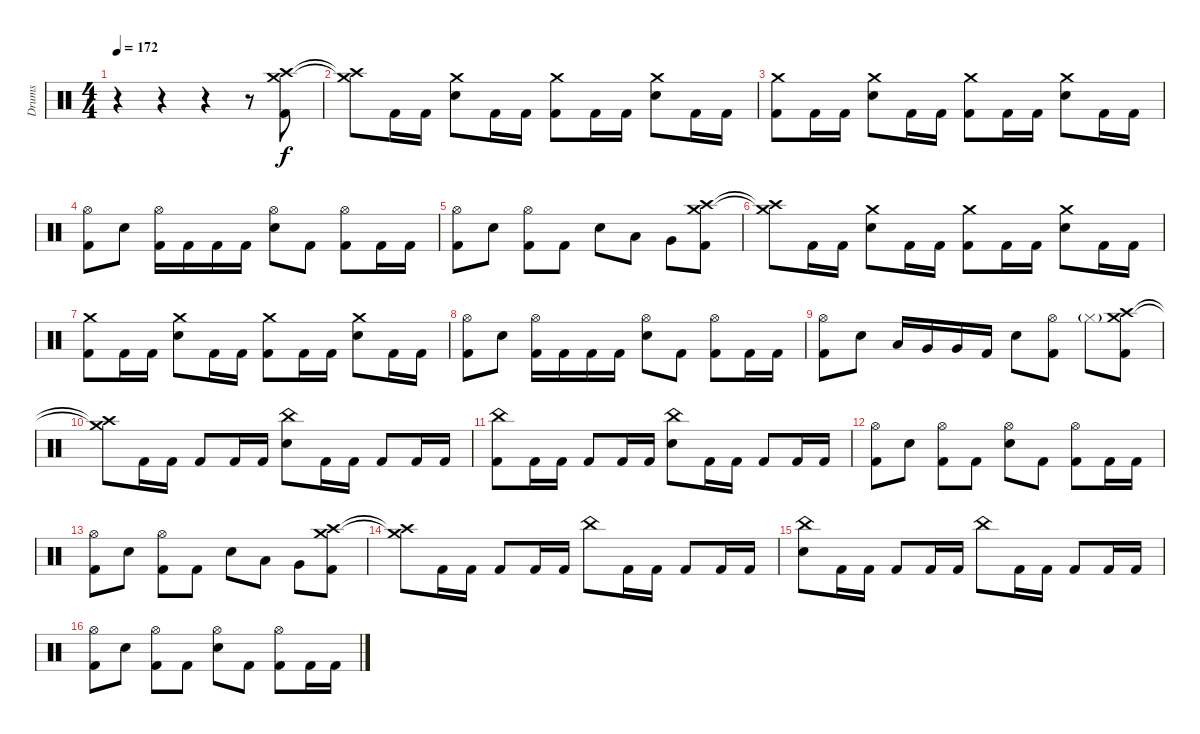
\track ("Drums" "Drums") {instrument percussion}
\staff {score}
\articulation defaults
\ts (4 4)
\tempo 172
\clef neutral
\ks c
r.4{dy f} r.4 r.4 r.8 ("Crash medium (hit)" "Crash high (hit)" "Kick (hit) 2").8 |
("Crash medium (hit)"{t} "Crash high (hit)"{t}).8 "Kick (hit) 2".16 "Kick (hit) 2".16 ("Crash medium (hit)" "Electric Snare (hit)").8 "Kick (hit) 2".16 "Kick (hit) 2".16 ("Crash medium (hit)" "Kick (hit) 2").8 "Kick (hit) 2".16 "Kick (hit) 2".16 ("Crash medium (hit)" "Electric Snare (hit)").8 "Kick (hit) 2".16 "Kick (hit) 2".16 |
("Crash medium (hit)" "Kick (hit) 2").8 "Kick (hit) 2".16 "Kick (hit) 2".16 ("Crash medium (hit)" "Electric Snare (hit)").8 "Kick (hit) 2".16 "Kick (hit) 2".16 ("Crash medium (hit)" "Kick (hit) 2").8 "Kick (hit) 2".16 "Kick (hit) 2".16 ("Crash medium (hit)" "Electric Snare (hit)").8 "Kick (hit) 2".16 "Kick (hit) 2".16 |
("Hi-Hat (open)" "Kick (hit) 2").8 "Electric Snare (hit)".8 ("Hi-Hat (open)" "Kick (hit) 2").16 "Kick (hit) 2".16 "Kick (hit) 2".16 "Kick (hit) 2".16 ("Hi-Hat (open)" "Electric Snare (hit)").8 "Kick (hit) 2".8 ("Hi-Hat (open)" "Kick (hit) 2").8 "Kick (hit) 2".16 "Kick (hit) 2".16 |
("Hi-Hat (open)" "Kick (hit) 2").8 "Electric Snare (hit)".8 ("Hi-Hat (open)" "Kick (hit) 2").8 "Kick (hit) 2".8 "Electric Snare (hit)".8 "Low Tom (hit)".8 "Very Low Tom (hit)".8 ("Crash medium (hit)" "Crash high (hit)" "Kick (hit) 2").8 |
("Crash medium (hit)"{t} "Crash high (hit)"{t}).8 "Kick (hit) 2".16 "Kick (hit) 2".16 ("Crash medium (hit)" "Electric Snare (hit)").8 "Kick (hit) 2".16 "Kick (hit) 2".16 ("Crash medium (hit)" "Kick (hit) 2").8 "Kick (hit) 2".16 "Kick (hit) 2".16 ("Crash medium (hit)" "Electric Snare (hit)").8 "Kick (hit) 2".16 "Kick (hit) 2".16 |
("Crash medium (hit)" "Kick (hit) 2").8 "Kick (hit) 2".16 "Kick (hit) 2".16 ("Crash medium (hit)" "Electric Snare (hit)").8 "Kick (hit) 2".16 "Kick (hit) 2".16 ("Crash medium (hit)" "Kick (hit) 2").8 "Kick (hit) 2".16 "Kick (hit) 2".16 ("Crash medium (hit)" "Electric Snare (hit)").8 "Kick (hit) 2".16 "Kick (hit) 2".16 |
("Hi-Hat (open)" "Kick (hit) 2").8 "Electric Snare (hit)".8 ("Hi-Hat (open)" "Kick (hit) 2").16 "Kick (hit) 2".16 "Kick (hit) 2".16 "Kick (hit) 2".16 ("Hi-Hat (open)" "Electric Snare (hit)").8 "Kick (hit) 2".8 ("Hi-Hat (open)" "Kick (hit) 2").8 "Kick (hit) 2".16 "Kick (hit) 2".16 |
("Hi-Hat (open)" "Kick (hit) 2").8 "Electric Snare (hit)".8 "Low Tom (hit)".16 "Very Low Tom (hit)".16 "Very Low Tom (hit)".16 "Kick (hit) 2".16 "Electric Snare (hit)".8 ("Hi-Hat (open)" "Kick (hit) 2").8 "Hi-Hat (closed)"{g}.8 ("Crash medium (hit)" "Crash high (hit)" "Kick (hit) 2").8 |
("Crash medium (hit)"{t} "Crash high (hit)"{t}).8 "Kick (hit) 2".16 "Kick (hit) 2".16 "Kick (hit) 2".8 "Kick (hit) 2".16 "Kick (hit) 2".16 ("China (hit)" "Electric Snare (hit)").8 "Kick (hit) 2".16 "Kick (hit) 2".16 "Kick (hit) 2".8 "Kick (hit) 2".16 "Kick (hit) 2".16 |
("China (hit)" "Kick (hit) 2").8 "Kick (hit) 2".16 "Kick (hit) 2".16 "Kick (hit) 2".8 "Kick (hit) 2".16 "Kick (hit) 2".16 ("China (hit)" "Electric Snare (hit)").8 "Kick (hit) 2".16 "Kick (hit) 2".16 "Kick (hit) 2".8 "Kick (hit) 2".16 "Kick (hit) 2".16 |
("Hi-Hat (open)" "Kick (hit) 2").8 "Electric Snare (hit)".8 ("Hi-Hat (open)" "Kick (hit) 2").8 "Kick (hit) 2".8 ("Hi-Hat (open)" "Electric Snare (hit)").8 "Kick (hit) 2".8 ("Hi-Hat (open)" "Kick (hit) 2").8 "Kick (hit) 2".16 "Kick (hit) 2".16 |
("Hi-Hat (open)" "Kick (hit) 2").8 "Electric Snare (hit)".8 ("Hi-Hat (open)" "Kick (hit) 2").8 "Kick (hit) 2".8 "Electric Snare (hit)".8 "Low Tom (hit)".8 "Very Low Tom (hit)".8 ("Crash medium (hit)" "Crash high (hit)" "Kick (hit) 2").8 |
("Crash medium (hit)"{t} "Crash high (hit)"{t}).8 "Kick (hit) 2".16 "Kick (hit) 2".16 "Kick (hit) 2".8 "Kick (hit) 2".16 "Kick (hit) 2".16 "China (hit)".8 "Kick (hit) 2".16 "Kick (hit) 2".16 "Kick (hit) 2".8 "Kick (hit) 2".16 "Kick (hit) 2".16 |
("China (hit)" "Electric Snare (hit)").8 "Kick (hit) 2".16 "Kick (hit) 2".16 "Kick (hit) 2".8 "Kick (hit) 2".16 "Kick (hit) 2".16 "China (hit)".8 "Kick (hit) 2".16 "Kick (hit) 2".16 "Kick (hit) 2".8 "Kick (hit) 2".16 "Kick (hit) 2".16 |
("Hi-Hat (open)" "Kick (hit) 2").8 "Electric Snare (hit)".8 ("Hi-Hat (open)" "Kick (hit) 2").8 "Kick (hit) 2".8 ("Hi-Hat (open)" "Electric Snare (hit)").8 "Kick (hit) 2".8 ("Hi-Hat (open)" "Kick (hit) 2").8 "Kick (hit) 2".16 "Kick (hit) 2".16
